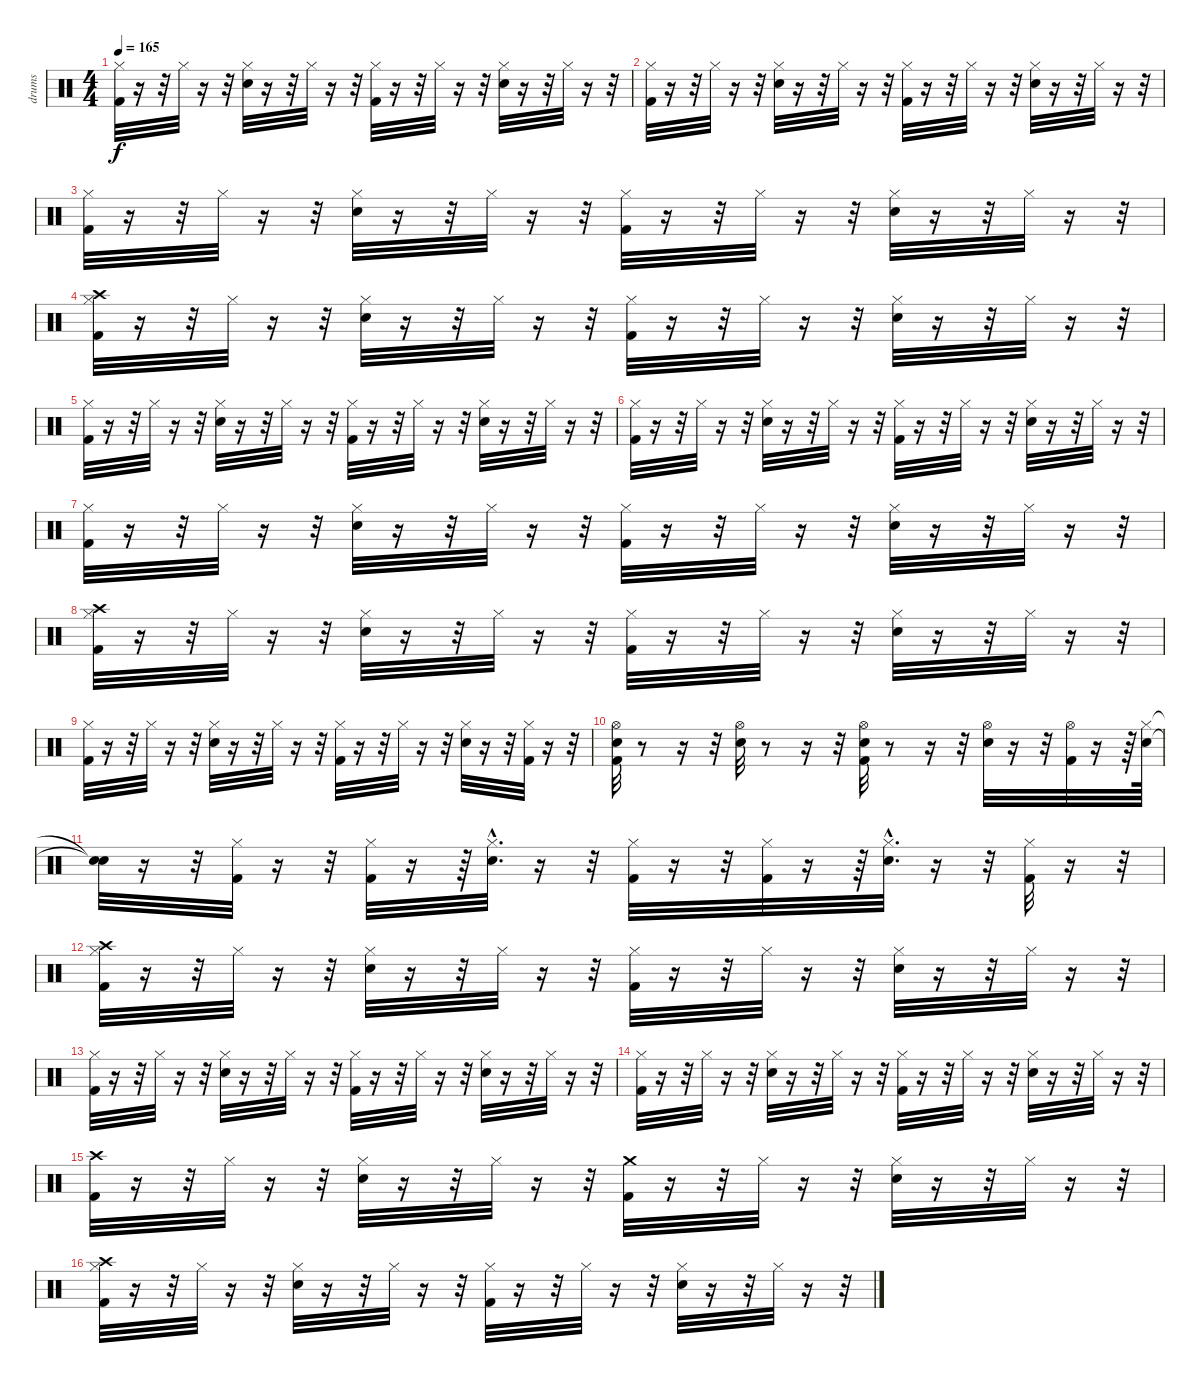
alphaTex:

\track ("drums" "drums") {instrument percussion}
\staff {score}
\articulation defaults
\ts (4 4)
\tempo 165
\clef neutral
\ks c
("Hi-Hat (closed)" "Kick (hit) 2").32{dy f} r.16 r.32 "Hi-Hat (closed)".32 r.16 r.32 ("Hi-Hat (closed)" "Electric Snare (hit)").32 r.16 r.32 "Hi-Hat (closed)".32 r.16 r.32 ("Hi-Hat (closed)" "Kick (hit) 2").32 r.16 r.32 "Hi-Hat (closed)".32 r.16 r.32 ("Hi-Hat (closed)" "Electric Snare (hit)").32 r.16 r.32 "Hi-Hat (closed)".32 r.16 r.32 |
("Hi-Hat (closed)" "Kick (hit) 2").32 r.16 r.32 "Hi-Hat (closed)".32 r.16 r.32 ("Hi-Hat (closed)" "Electric Snare (hit)").32 r.16 r.32 "Hi-Hat (closed)".32 r.16 r.32 ("Hi-Hat (closed)" "Kick (hit) 2").32 r.16 r.32 "Hi-Hat (closed)".32 r.16 r.32 ("Hi-Hat (closed)" "Electric Snare (hit)").32 r.16 r.32 "Hi-Hat (closed)".32 r.16 r.32 |
("Hi-Hat (closed)" "Kick (hit) 2").32 r.16 r.32 "Hi-Hat (closed)".32 r.16 r.32 ("Hi-Hat (closed)" "Electric Snare (hit)").32 r.16 r.32 "Hi-Hat (closed)".32 r.16 r.32 ("Hi-Hat (closed)" "Kick (hit) 2").32 r.16 r.32 "Hi-Hat (closed)".32 r.16 r.32 ("Hi-Hat (closed)" "Electric Snare (hit)").32 r.16 r.32 "Hi-Hat (closed)".32 r.16 r.32 |
("Crash high (hit)" "Hi-Hat (closed)" "Kick (hit) 2").32 r.16 r.32 "Hi-Hat (closed)".32 r.16 r.32 ("Hi-Hat (closed)" "Electric Snare (hit)").32 r.16 r.32 "Hi-Hat (closed)".32 r.16 r.32 ("Hi-Hat (closed)" "Kick (hit) 2").32 r.16 r.32 "Hi-Hat (closed)".32 r.16 r.32 ("Hi-Hat (closed)" "Electric Snare (hit)").32 r.16 r.32 "Hi-Hat (closed)".32 r.16 r.32 |
("Hi-Hat (closed)" "Kick (hit) 2").32 r.16 r.32 "Hi-Hat (closed)".32 r.16 r.32 ("Hi-Hat (closed)" "Electric Snare (hit)").32 r.16 r.32 "Hi-Hat (closed)".32 r.16 r.32 ("Hi-Hat (closed)" "Kick (hit) 2").32 r.16 r.32 "Hi-Hat (closed)".32 r.16 r.32 ("Hi-Hat (closed)" "Electric Snare (hit)").32 r.16 r.32 "Hi-Hat (closed)".32 r.16 r.32 |
("Hi-Hat (closed)" "Kick (hit) 2").32 r.16 r.32 "Hi-Hat (closed)".32 r.16 r.32 ("Hi-Hat (closed)" "Electric Snare (hit)").32 r.16 r.32 "Hi-Hat (closed)".32 r.16 r.32 ("Hi-Hat (closed)" "Kick (hit) 2").32 r.16 r.32 "Hi-Hat (closed)".32 r.16 r.32 ("Hi-Hat (closed)" "Electric Snare (hit)").32 r.16 r.32 "Hi-Hat (closed)".32 r.16 r.32 |
("Hi-Hat (closed)" "Kick (hit) 2").32 r.16 r.32 "Hi-Hat (closed)".32 r.16 r.32 ("Hi-Hat (closed)" "Electric Snare (hit)").32 r.16 r.32 "Hi-Hat (closed)".32 r.16 r.32 ("Hi-Hat (closed)" "Kick (hit) 2").32 r.16 r.32 "Hi-Hat (closed)".32 r.16 r.32 ("Hi-Hat (closed)" "Electric Snare (hit)").32 r.16 r.32 "Hi-Hat (closed)".32 r.16 r.32 |
("Crash high (hit)" "Hi-Hat (closed)" "Kick (hit) 2").32 r.16 r.32 "Hi-Hat (closed)".32 r.16 r.32 ("Hi-Hat (closed)" "Electric Snare (hit)").32 r.16 r.32 "Hi-Hat (closed)".32 r.16 r.32 ("Hi-Hat (closed)" "Kick (hit) 2").32 r.16 r.32 "Hi-Hat (closed)".32 r.16 r.32 ("Hi-Hat (closed)" "Electric Snare (hit)").32 r.16 r.32 "Hi-Hat (closed)".32 r.16 r.32 |
("Hi-Hat (closed)" "Kick (hit) 2").32 r.16 r.32 "Hi-Hat (closed)".32 r.16 r.32 ("Hi-Hat (closed)" "Electric Snare (hit)").32 r.16 r.32 "Hi-Hat (closed)".32 r.16 r.32 ("Hi-Hat (closed)" "Kick (hit) 2").32 r.16 r.32 "Hi-Hat (closed)".32 r.16 r.32 ("Hi-Hat (closed)" "Electric Snare (hit)").32 r.16 r.32 ("Kick (hit) 2" "Hi-Hat (closed)").32 r.16 r.32 |
("Electric Snare (hit)" "Hi-Hat (open)" "Kick (hit) 2").32 r.8 r.16 r.32 ("Electric Snare (hit)" "Hi-Hat (open)").32 r.8 r.16 r.32 ("Electric Snare (hit)" "Hi-Hat (open)" "Kick (hit) 2").32 r.8 r.16 r.32 ("Hi-Hat (open)" "Electric Snare (hit)").32 r.16 r.32 ("Kick (hit) 2" "Hi-Hat (open)").32 r.16 r.64 ("Hi-Hat (closed)" "Electric Snare (hit)").64 |
("Snare (hit)"{t} "Snare (hit)"{t}).32 r.16 r.32 ("Kick (hit) 2" "Hi-Hat (closed)").32 r.16 r.32 ("Hi-Hat (closed)" "Kick (hit) 2").32 r.16 r.64 ("Electric Snare (hit)"{hac} "Hi-Hat (closed)"{hac}).32{d} r.16 r.32 ("Hi-Hat (closed)" "Kick (hit) 2").32 r.16 r.32 ("Hi-Hat (closed)" "Kick (hit) 2").32 r.16 r.64 ("Hi-Hat (closed)"{hac} "Electric Snare (hit)"{hac}).32{d} r.16 r.32 ("Kick (hit) 2" "Hi-Hat (closed)").32 r.16 r.32 |
("Kick (hit) 2" "Hi-Hat (closed)" "Crash high (hit)").32 r.16 r.32 "Hi-Hat (closed)".32 r.16 r.32 ("Hi-Hat (closed)" "Electric Snare (hit)").32 r.16 r.32 "Hi-Hat (closed)".32 r.16 r.32 ("Hi-Hat (closed)" "Kick (hit) 2").32 r.16 r.32 "Hi-Hat (closed)".32 r.16 r.32 ("Hi-Hat (closed)" "Electric Snare (hit)").32 r.16 r.32 "Hi-Hat (closed)".32 r.16 r.32 |
("Hi-Hat (closed)" "Kick (hit) 2").32 r.16 r.32 "Hi-Hat (closed)".32 r.16 r.32 ("Hi-Hat (closed)" "Electric Snare (hit)").32 r.16 r.32 "Hi-Hat (closed)".32 r.16 r.32 ("Hi-Hat (closed)" "Kick (hit) 2").32 r.16 r.32 "Hi-Hat (closed)".32 r.16 r.32 ("Hi-Hat (closed)" "Electric Snare (hit)").32 r.16 r.32 "Hi-Hat (closed)".32 r.16 r.32 |
("Hi-Hat (closed)" "Kick (hit) 2").32 r.16 r.32 "Hi-Hat (closed)".32 r.16 r.32 ("Hi-Hat (closed)" "Electric Snare (hit)").32 r.16 r.32 "Hi-Hat (closed)".32 r.16 r.32 ("Hi-Hat (closed)" "Kick (hit) 2").32 r.16 r.32 "Hi-Hat (closed)".32 r.16 r.32 ("Hi-Hat (closed)" "Electric Snare (hit)").32 r.16 r.32 "Hi-Hat (closed)".32 r.16 r.32 |
("Crash high (hit)" "Kick (hit) 2").32 r.16 r.32 "Hi-Hat (closed)".32 r.16 r.32 ("Hi-Hat (closed)" "Electric Snare (hit)").32 r.16 r.32 "Hi-Hat (closed)".32 r.16 r.32 ("Crash medium (hit)" "Kick (hit) 2").32 r.16 r.32 "Hi-Hat (closed)".32 r.16 r.32 ("Hi-Hat (closed)" "Electric Snare (hit)").32 r.16 r.32 "Hi-Hat (closed)".32 r.16 r.32 |
("Crash high (hit)" "Hi-Hat (closed)" "Kick (hit) 2").32 r.16 r.32 "Hi-Hat (closed)".32 r.16 r.32 ("Hi-Hat (closed)" "Electric Snare (hit)").32 r.16 r.32 "Hi-Hat (closed)".32 r.16 r.32 ("Hi-Hat (closed)" "Kick (hit) 2").32 r.16 r.32 "Hi-Hat (closed)".32 r.16 r.32 ("Hi-Hat (closed)" "Electric Snare (hit)").32 r.16 r.32 "Hi-Hat (closed)".32 r.16 r.32
